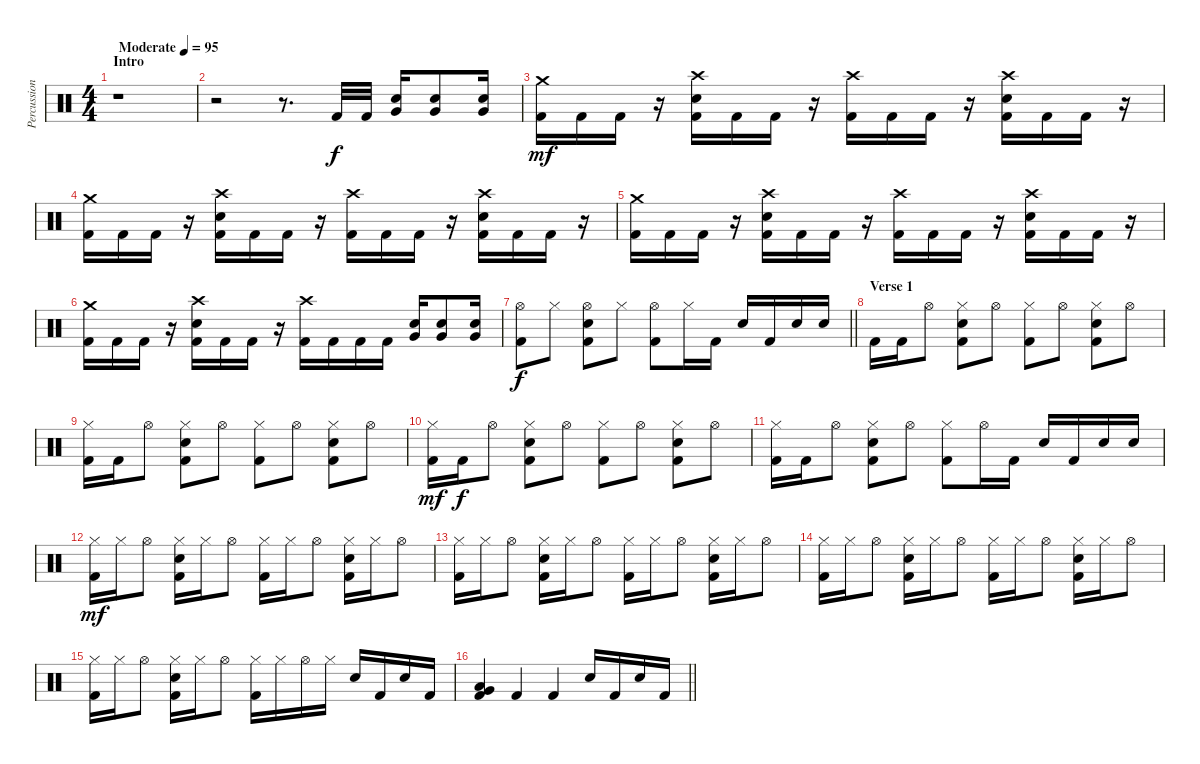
\track ("Percussion" "Percussion") {instrument percussion}
\staff {score}
\articulation defaults
\ts (4 4)
\section ("" "Intro")
\tempo (95 "Moderate")
\clef neutral
\ks c
r.1{dy f} |
r.2 r.8{d} "Kick (hit) 2".32 "Kick (hit) 2".32 ("Snare (hit) 2" "Very Low Tom (hit)").16 ("Snare (hit) 2" "Very Low Tom (hit)").8 ("Snare (hit) 2" "Very Low Tom (hit)").16 |
("Crash medium (hit)" "Kick (hit) 2").16{dy mf} "Kick (hit) 2".16 "Kick (hit) 2".16 r.16 ("Crash high (hit)" "Snare (hit) 2" "Kick (hit) 2").16 "Kick (hit) 2".16 "Kick (hit) 2".16 r.16 ("Crash high (hit)" "Kick (hit) 2").16 "Kick (hit) 2".16 "Kick (hit) 2".16 r.16 ("Crash high (hit)" "Snare (hit) 2" "Kick (hit) 2").16 "Kick (hit) 2".16 "Kick (hit) 2".16 r.16 |
("Crash medium (hit)" "Kick (hit) 2").16 "Kick (hit) 2".16 "Kick (hit) 2".16 r.16 ("Crash high (hit)" "Snare (hit) 2" "Kick (hit) 2").16 "Kick (hit) 2".16 "Kick (hit) 2".16 r.16 ("Crash high (hit)" "Kick (hit) 2").16 "Kick (hit) 2".16 "Kick (hit) 2".16 r.16 ("Crash high (hit)" "Snare (hit) 2" "Kick (hit) 2").16 "Kick (hit) 2".16 "Kick (hit) 2".16 r.16 |
("Crash medium (hit)" "Kick (hit) 2").16 "Kick (hit) 2".16 "Kick (hit) 2".16 r.16 ("Crash high (hit)" "Snare (hit) 2" "Kick (hit) 2").16 "Kick (hit) 2".16 "Kick (hit) 2".16 r.16 ("Crash high (hit)" "Kick (hit) 2").16 "Kick (hit) 2".16 "Kick (hit) 2".16 r.16 ("Crash high (hit)" "Snare (hit) 2" "Kick (hit) 2").16 "Kick (hit) 2".16 "Kick (hit) 2".16 r.16 |
("Crash medium (hit)" "Kick (hit) 2").16 "Kick (hit) 2".16 "Kick (hit) 2".16 r.16 ("Crash high (hit)" "Snare (hit) 2" "Kick (hit) 2").16 "Kick (hit) 2".16 "Kick (hit) 2".16 r.16 ("Crash high (hit)" "Kick (hit) 2").16 "Kick (hit) 2".16 "Kick (hit) 2".16 "Kick (hit) 2".16 ("Snare (hit) 2" "Very Low Tom (hit)").16 ("Snare (hit) 2" "Very Low Tom (hit)").8 ("Snare (hit) 2" "Very Low Tom (hit)").16 |
\barLineRight lightlight
("Hi-Hat (open)" "Kick (hit) 2").8{dy f} "Hi-Hat (closed)".8 ("Hi-Hat (open)" "Snare (hit) 2" "Kick (hit) 2").8 "Hi-Hat (closed)".8 ("Hi-Hat (open)" "Kick (hit) 2").8 "Hi-Hat (closed)".16 "Kick (hit) 2".16 "Snare (hit) 2".16 "Kick (hit) 2".16 "Snare (hit) 2".16 "Snare (hit) 2".16 |
\section ("" "Verse 1")
"Kick (hit) 2".16 "Kick (hit) 2".16 "Hi-Hat (open)".8 ("Hi-Hat (closed)" "Snare (hit) 2" "Kick (hit) 2").8 "Hi-Hat (open)".8 ("Hi-Hat (closed)" "Kick (hit) 2").8 "Hi-Hat (open)".8 ("Hi-Hat (closed)" "Snare (hit) 2" "Kick (hit) 2").8 "Hi-Hat (open)".8 |
("Hi-Hat (closed)" "Kick (hit) 2").16 "Kick (hit) 2".16 "Hi-Hat (open)".8 ("Hi-Hat (closed)" "Snare (hit) 2" "Kick (hit) 2").8 "Hi-Hat (open)".8 ("Hi-Hat (closed)" "Kick (hit) 2").8 "Hi-Hat (open)".8 ("Hi-Hat (closed)" "Snare (hit) 2" "Kick (hit) 2").8 "Hi-Hat (open)".8 |
("Hi-Hat (closed)" "Kick (hit) 2").16{dy mf} "Kick (hit) 2".16{dy f} "Hi-Hat (open)".8 ("Hi-Hat (closed)" "Snare (hit) 2" "Kick (hit) 2").8 "Hi-Hat (open)".8 ("Hi-Hat (closed)" "Kick (hit) 2").8 "Hi-Hat (open)".8 ("Hi-Hat (closed)" "Snare (hit) 2" "Kick (hit) 2").8 "Hi-Hat (open)".8 |
("Hi-Hat (closed)" "Kick (hit) 2").16 "Kick (hit) 2".16 "Hi-Hat (open)".8 ("Hi-Hat (closed)" "Snare (hit) 2" "Kick (hit) 2").8 "Hi-Hat (open)".8 ("Hi-Hat (closed)" "Kick (hit) 2").8 "Hi-Hat (open)".16 "Kick (hit) 2".16 "Snare (hit) 2".16 "Kick (hit) 2".16 "Snare (hit) 2".16 "Snare (hit) 2".16 |
("Hi-Hat (closed)" "Kick (hit) 2").16{dy mf} "Hi-Hat (closed)".16 "Hi-Hat (open)".8 ("Hi-Hat (closed)" "Snare (hit) 2" "Kick (hit) 2").16 "Hi-Hat (closed)".16 "Hi-Hat (open)".8 ("Hi-Hat (closed)" "Kick (hit) 2").16 "Hi-Hat (closed)".16 "Hi-Hat (open)".8 ("Hi-Hat (closed)" "Snare (hit) 2" "Kick (hit) 2").16 "Hi-Hat (closed)".16 "Hi-Hat (open)".8 |
("Hi-Hat (closed)" "Kick (hit) 2").16 "Hi-Hat (closed)".16 "Hi-Hat (open)".8 ("Hi-Hat (closed)" "Snare (hit) 2" "Kick (hit) 2").16 "Hi-Hat (closed)".16 "Hi-Hat (open)".8 ("Hi-Hat (closed)" "Kick (hit) 2").16 "Hi-Hat (closed)".16 "Hi-Hat (open)".8 ("Hi-Hat (closed)" "Snare (hit) 2" "Kick (hit) 2").16 "Hi-Hat (closed)".16 "Hi-Hat (open)".8 |
("Hi-Hat (closed)" "Kick (hit) 2").16 "Hi-Hat (closed)".16 "Hi-Hat (open)".8 ("Hi-Hat (closed)" "Snare (hit) 2" "Kick (hit) 2").16 "Hi-Hat (closed)".16 "Hi-Hat (open)".8 ("Hi-Hat (closed)" "Kick (hit) 2").16 "Hi-Hat (closed)".16 "Hi-Hat (open)".8 ("Hi-Hat (closed)" "Snare (hit) 2" "Kick (hit) 2").16 "Hi-Hat (closed)".16 "Hi-Hat (open)".8 |
("Hi-Hat (closed)" "Kick (hit) 2").16 "Hi-Hat (closed)".16 "Hi-Hat (open)".8 ("Hi-Hat (closed)" "Snare (hit) 2" "Kick (hit) 2").16 "Hi-Hat (closed)".16 "Hi-Hat (open)".8 ("Hi-Hat (closed)" "Kick (hit) 2").16 "Hi-Hat (closed)".16 "Hi-Hat (open)".16 "Hi-Hat (closed)".16 "Snare (hit) 2".16 "Kick (hit) 2".16 "Snare (hit) 2".16 "Kick (hit) 2".16 |
\barLineRight lightlight
("Low Floor Tom (hit)" "Very Low Tom (hit)" "Kick (hit) 2").4 "Kick (hit) 2".4 "Kick (hit) 2".4 "Snare (hit) 2".16 "Kick (hit) 2".16 "Snare (hit) 2".16 "Kick (hit) 2".16
